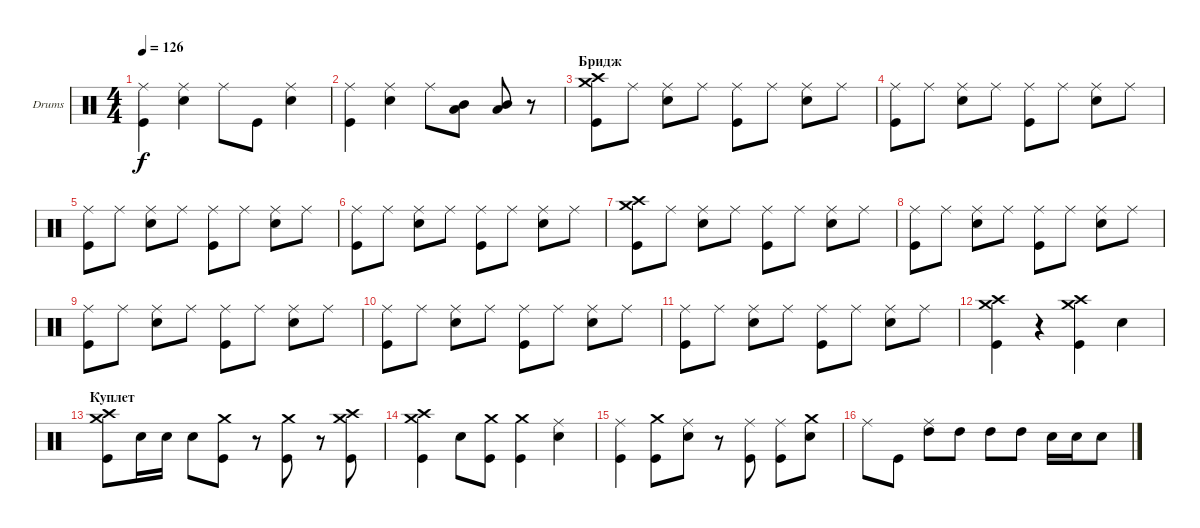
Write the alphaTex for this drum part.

\bracketExtendMode groupsimilarinstruments
\firstSystemTrackNameOrientation horizontal
\otherSystemsTrackNameOrientation horizontal
\track ("Александр Манякин" "Drums") {instrument percussion}
\staff {score}
\articulation defaults
\ts (4 4)
\tempo 126
\clef neutral
\ks c
("Kick (hit)" "Ride (middle)").4{dy f} ("Snare (hit) 2" "Ride (middle)").4 "Ride (middle)".8 "Kick (hit)".8 ("Snare (hit) 2" "Ride (middle)").4 |
("Kick (hit)" "Ride (middle)").4 ("Snare (hit) 2" "Ride (middle)").4 "Ride (middle)".8 ("Mid Tom (hit)" "Low Tom (hit)").8 ("Mid Tom (hit)" "Low Tom (hit)").8 r.8 |
\section ("" "Бридж")
("Kick (hit)" "Crash medium (hit)" "Crash high (hit)").8 "Ride (middle)".8 ("Snare (hit) 2" "Ride (middle)").8 "Ride (middle)".8 ("Kick (hit)" "Ride (middle)").8 "Ride (middle)".8 ("Snare (hit) 2" "Ride (middle)").8 "Ride (middle)".8 |
("Kick (hit)" "Ride (middle)").8 "Ride (middle)".8 ("Snare (hit) 2" "Ride (middle)").8 "Ride (middle)".8 ("Kick (hit)" "Ride (middle)").8 "Ride (middle)".8 ("Snare (hit) 2" "Ride (middle)").8 "Ride (middle)".8 |
("Kick (hit)" "Ride (middle)").8 "Ride (middle)".8 ("Snare (hit) 2" "Ride (middle)").8 "Ride (middle)".8 ("Kick (hit)" "Ride (middle)").8 "Ride (middle)".8 ("Snare (hit) 2" "Ride (middle)").8 "Ride (middle)".8 |
("Kick (hit)" "Ride (middle)").8 "Ride (middle)".8 ("Snare (hit) 2" "Ride (middle)").8 "Ride (middle)".8 ("Kick (hit)" "Ride (middle)").8 "Ride (middle)".8 ("Snare (hit) 2" "Ride (middle)").8 "Ride (middle)".8 |
("Kick (hit)" "Crash medium (hit)" "Crash high (hit)").8 "Ride (middle)".8 ("Snare (hit) 2" "Ride (middle)").8 "Ride (middle)".8 ("Kick (hit)" "Ride (middle)").8 "Ride (middle)".8 ("Snare (hit) 2" "Ride (middle)").8 "Ride (middle)".8 |
("Kick (hit)" "Ride (middle)").8 "Ride (middle)".8 ("Snare (hit) 2" "Ride (middle)").8 "Ride (middle)".8 ("Kick (hit)" "Ride (middle)").8 "Ride (middle)".8 ("Snare (hit) 2" "Ride (middle)").8 "Ride (middle)".8 |
("Kick (hit)" "Ride (middle)").8 "Ride (middle)".8 ("Snare (hit) 2" "Ride (middle)").8 "Ride (middle)".8 ("Kick (hit)" "Ride (middle)").8 "Ride (middle)".8 ("Snare (hit) 2" "Ride (middle)").8 "Ride (middle)".8 |
("Kick (hit)" "Ride (middle)").8 "Ride (middle)".8 ("Snare (hit) 2" "Ride (middle)").8 "Ride (middle)".8 ("Kick (hit)" "Ride (middle)").8 "Ride (middle)".8 ("Snare (hit) 2" "Ride (middle)").8 "Ride (middle)".8 |
("Kick (hit)" "Ride (middle)").8 "Ride (middle)".8 ("Snare (hit) 2" "Ride (middle)").8 "Ride (middle)".8 ("Kick (hit)" "Ride (middle)").8 "Ride (middle)".8 ("Snare (hit) 2" "Ride (middle)").8 "Ride (middle)".8 |
("Kick (hit)" "Crash medium (hit)" "Crash high (hit)").4 r.4 ("Kick (hit)" "Crash high (hit)" "Crash medium (hit)").4 "Snare (hit) 2".4 |
\section ("" "Куплет")
("Kick (hit)" "Crash medium (hit)" "Crash high (hit)").8 "Snare (hit) 2".16 "Snare (hit) 2".16 "Snare (hit) 2".8 ("Kick (hit)" "Crash medium (hit)").8 r.8 ("Kick (hit)" "Crash medium (hit)").8 r.8 ("Kick (hit)" "Crash high (hit)" "Crash medium (hit)").8 |
("Kick (hit)" "Crash medium (hit)" "Crash high (hit)").4 "Snare (hit) 2".8 ("Kick (hit)" "Crash medium (hit)").8 ("Kick (hit)" "Crash medium (hit)").4 ("Snare (hit) 2" "Ride (middle)").4 |
("Kick (hit)" "Ride (middle)").4 ("Kick (hit)" "Crash medium (hit)").8 ("Snare (hit) 2" "Ride (middle)").8 r.8 ("Kick (hit)" "Ride (middle)").8 ("Kick (hit)" "Ride (middle)").8 ("Snare (hit) 2" "Crash medium (hit)").8 |
"Ride (middle)".8 "Kick (hit)".8 ("High Tom (hit)" "Ride (middle)").8 "High Tom (hit)".8 "High Tom (hit)".8 "High Tom (hit)".8 "Snare (hit) 2".16 "Snare (hit) 2".16 "Snare (hit) 2".8
